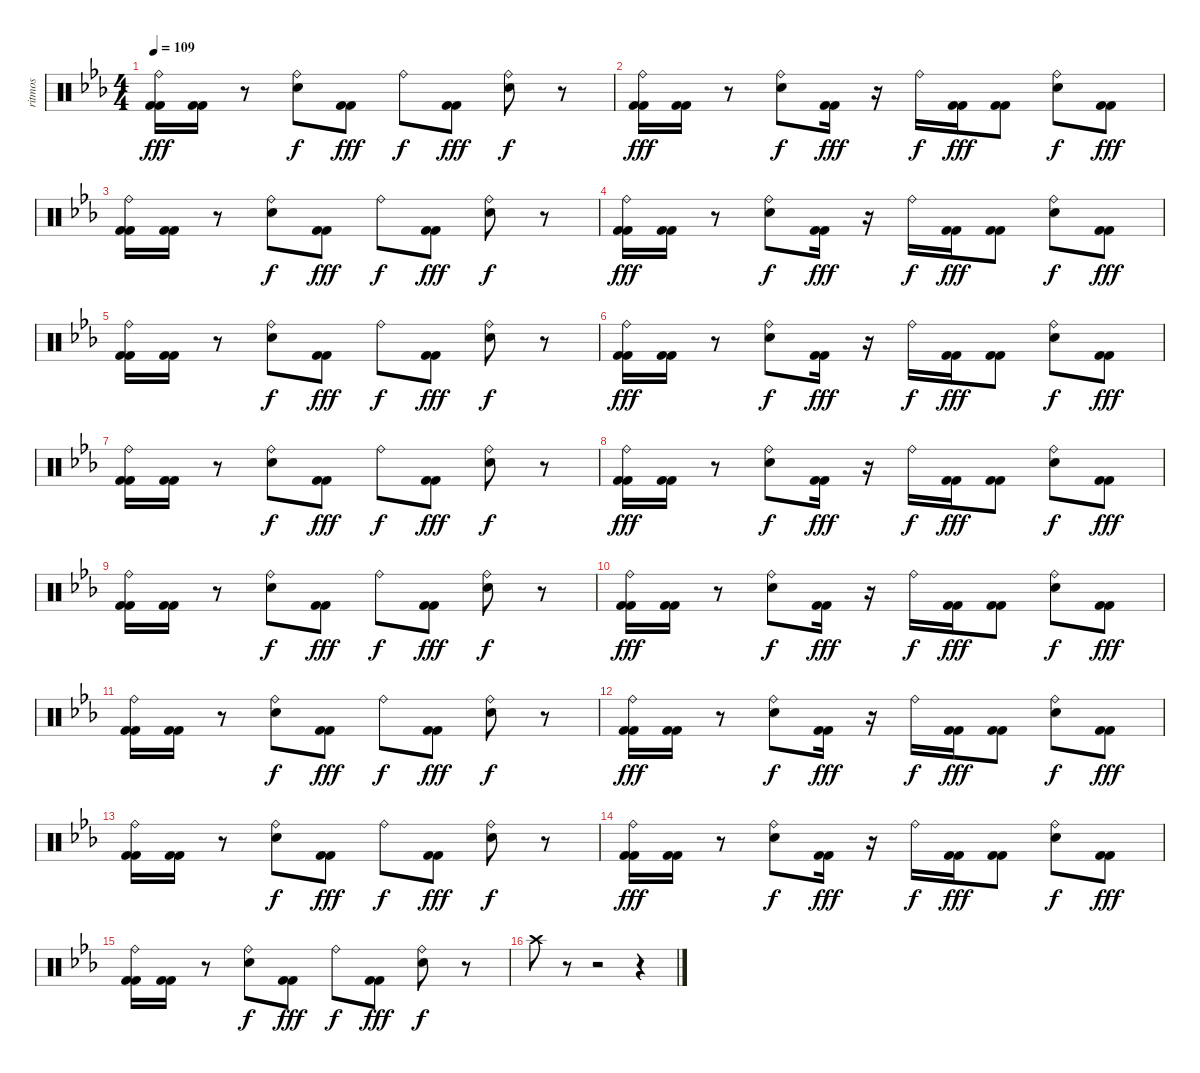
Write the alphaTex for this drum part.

\track ("ritmos" "ritmos") {instrument percussion}
\staff {score}
\articulation defaults
\ts (4 4)
\tempo 109
\clef neutral
\ks eb
("Ride (bell)" "Kick (hit) 2" "Kick (hit) 2").16{dy fff} ("Kick (hit) 2" "Kick (hit) 2").16 r.8 ("Ride (bell)" "Electric Snare (hit)").8{dy f} ("Kick (hit) 2" "Kick (hit) 2").8{dy fff} "Ride (bell)".8{dy f} ("Kick (hit) 2" "Kick (hit) 2").8{dy fff} ("Ride (bell)" "Electric Snare (hit)").8{dy f} r.8 |
("Ride (bell)" "Kick (hit) 2" "Kick (hit) 2").16{dy fff} ("Kick (hit) 2" "Kick (hit) 2").16 r.8 ("Ride (bell)" "Electric Snare (hit)").8{dy f} ("Kick (hit) 2" "Kick (hit) 2").16{dy fff} r.16 "Ride (bell)".16{dy f} ("Kick (hit) 2" "Kick (hit) 2").16{dy fff} ("Kick (hit) 2" "Kick (hit) 2").8 ("Ride (bell)" "Electric Snare (hit)").8{dy f} ("Kick (hit) 2" "Kick (hit) 2").8{dy fff} |
("Ride (bell)" "Kick (hit) 2" "Kick (hit) 2").16 ("Kick (hit) 2" "Kick (hit) 2").16 r.8 ("Ride (bell)" "Electric Snare (hit)").8{dy f} ("Kick (hit) 2" "Kick (hit) 2").8{dy fff} "Ride (bell)".8{dy f} ("Kick (hit) 2" "Kick (hit) 2").8{dy fff} ("Ride (bell)" "Electric Snare (hit)").8{dy f} r.8 |
("Ride (bell)" "Kick (hit) 2" "Kick (hit) 2").16{dy fff} ("Kick (hit) 2" "Kick (hit) 2").16 r.8 ("Ride (bell)" "Electric Snare (hit)").8{dy f} ("Kick (hit) 2" "Kick (hit) 2").16{dy fff} r.16 "Ride (bell)".16{dy f} ("Kick (hit) 2" "Kick (hit) 2").16{dy fff} ("Kick (hit) 2" "Kick (hit) 2").8 ("Ride (bell)" "Electric Snare (hit)").8{dy f} ("Kick (hit) 2" "Kick (hit) 2").8{dy fff} |
("Ride (bell)" "Kick (hit) 2" "Kick (hit) 2").16 ("Kick (hit) 2" "Kick (hit) 2").16 r.8 ("Ride (bell)" "Electric Snare (hit)").8{dy f} ("Kick (hit) 2" "Kick (hit) 2").8{dy fff} "Ride (bell)".8{dy f} ("Kick (hit) 2" "Kick (hit) 2").8{dy fff} ("Ride (bell)" "Electric Snare (hit)").8{dy f} r.8 |
("Ride (bell)" "Kick (hit) 2" "Kick (hit) 2").16{dy fff} ("Kick (hit) 2" "Kick (hit) 2").16 r.8 ("Ride (bell)" "Electric Snare (hit)").8{dy f} ("Kick (hit) 2" "Kick (hit) 2").16{dy fff} r.16 "Ride (bell)".16{dy f} ("Kick (hit) 2" "Kick (hit) 2").16{dy fff} ("Kick (hit) 2" "Kick (hit) 2").8 ("Ride (bell)" "Electric Snare (hit)").8{dy f} ("Kick (hit) 2" "Kick (hit) 2").8{dy fff} |
("Ride (bell)" "Kick (hit) 2" "Kick (hit) 2").16 ("Kick (hit) 2" "Kick (hit) 2").16 r.8 ("Ride (bell)" "Electric Snare (hit)").8{dy f} ("Kick (hit) 2" "Kick (hit) 2").8{dy fff} "Ride (bell)".8{dy f} ("Kick (hit) 2" "Kick (hit) 2").8{dy fff} ("Ride (bell)" "Electric Snare (hit)").8{dy f} r.8 |
("Ride (bell)" "Kick (hit) 2" "Kick (hit) 2").16{dy fff} ("Kick (hit) 2" "Kick (hit) 2").16 r.8 ("Ride (bell)" "Electric Snare (hit)").8{dy f} ("Kick (hit) 2" "Kick (hit) 2").16{dy fff} r.16 "Ride (bell)".16{dy f} ("Kick (hit) 2" "Kick (hit) 2").16{dy fff} ("Kick (hit) 2" "Kick (hit) 2").8 ("Ride (bell)" "Electric Snare (hit)").8{dy f} ("Kick (hit) 2" "Kick (hit) 2").8{dy fff} |
("Ride (bell)" "Kick (hit) 2" "Kick (hit) 2").16 ("Kick (hit) 2" "Kick (hit) 2").16 r.8 ("Ride (bell)" "Electric Snare (hit)").8{dy f} ("Kick (hit) 2" "Kick (hit) 2").8{dy fff} "Ride (bell)".8{dy f} ("Kick (hit) 2" "Kick (hit) 2").8{dy fff} ("Ride (bell)" "Electric Snare (hit)").8{dy f} r.8 |
("Ride (bell)" "Kick (hit) 2" "Kick (hit) 2").16{dy fff} ("Kick (hit) 2" "Kick (hit) 2").16 r.8 ("Ride (bell)" "Electric Snare (hit)").8{dy f} ("Kick (hit) 2" "Kick (hit) 2").16{dy fff} r.16 "Ride (bell)".16{dy f} ("Kick (hit) 2" "Kick (hit) 2").16{dy fff} ("Kick (hit) 2" "Kick (hit) 2").8 ("Ride (bell)" "Electric Snare (hit)").8{dy f} ("Kick (hit) 2" "Kick (hit) 2").8{dy fff} |
("Ride (bell)" "Kick (hit) 2" "Kick (hit) 2").16 ("Kick (hit) 2" "Kick (hit) 2").16 r.8 ("Ride (bell)" "Electric Snare (hit)").8{dy f} ("Kick (hit) 2" "Kick (hit) 2").8{dy fff} "Ride (bell)".8{dy f} ("Kick (hit) 2" "Kick (hit) 2").8{dy fff} ("Ride (bell)" "Electric Snare (hit)").8{dy f} r.8 |
("Ride (bell)" "Kick (hit) 2" "Kick (hit) 2").16{dy fff} ("Kick (hit) 2" "Kick (hit) 2").16 r.8 ("Ride (bell)" "Electric Snare (hit)").8{dy f} ("Kick (hit) 2" "Kick (hit) 2").16{dy fff} r.16 "Ride (bell)".16{dy f} ("Kick (hit) 2" "Kick (hit) 2").16{dy fff} ("Kick (hit) 2" "Kick (hit) 2").8 ("Ride (bell)" "Electric Snare (hit)").8{dy f} ("Kick (hit) 2" "Kick (hit) 2").8{dy fff} |
("Ride (bell)" "Kick (hit) 2" "Kick (hit) 2").16 ("Kick (hit) 2" "Kick (hit) 2").16 r.8 ("Ride (bell)" "Electric Snare (hit)").8{dy f} ("Kick (hit) 2" "Kick (hit) 2").8{dy fff} "Ride (bell)".8{dy f} ("Kick (hit) 2" "Kick (hit) 2").8{dy fff} ("Ride (bell)" "Electric Snare (hit)").8{dy f} r.8 |
("Ride (bell)" "Kick (hit) 2" "Kick (hit) 2").16{dy fff} ("Kick (hit) 2" "Kick (hit) 2").16 r.8 ("Ride (bell)" "Electric Snare (hit)").8{dy f} ("Kick (hit) 2" "Kick (hit) 2").16{dy fff} r.16 "Ride (bell)".16{dy f} ("Kick (hit) 2" "Kick (hit) 2").16{dy fff} ("Kick (hit) 2" "Kick (hit) 2").8 ("Ride (bell)" "Electric Snare (hit)").8{dy f} ("Kick (hit) 2" "Kick (hit) 2").8{dy fff} |
("Ride (bell)" "Kick (hit) 2" "Kick (hit) 2").16 ("Kick (hit) 2" "Kick (hit) 2").16 r.8 ("Ride (bell)" "Electric Snare (hit)").8{dy f} ("Kick (hit) 2" "Kick (hit) 2").8{dy fff} "Ride (bell)".8{dy f} ("Kick (hit) 2" "Kick (hit) 2").8{dy fff} ("Ride (bell)" "Electric Snare (hit)").8{dy f} r.8 |
"Crash high (hit)".8 r.8 r.2 r.4
